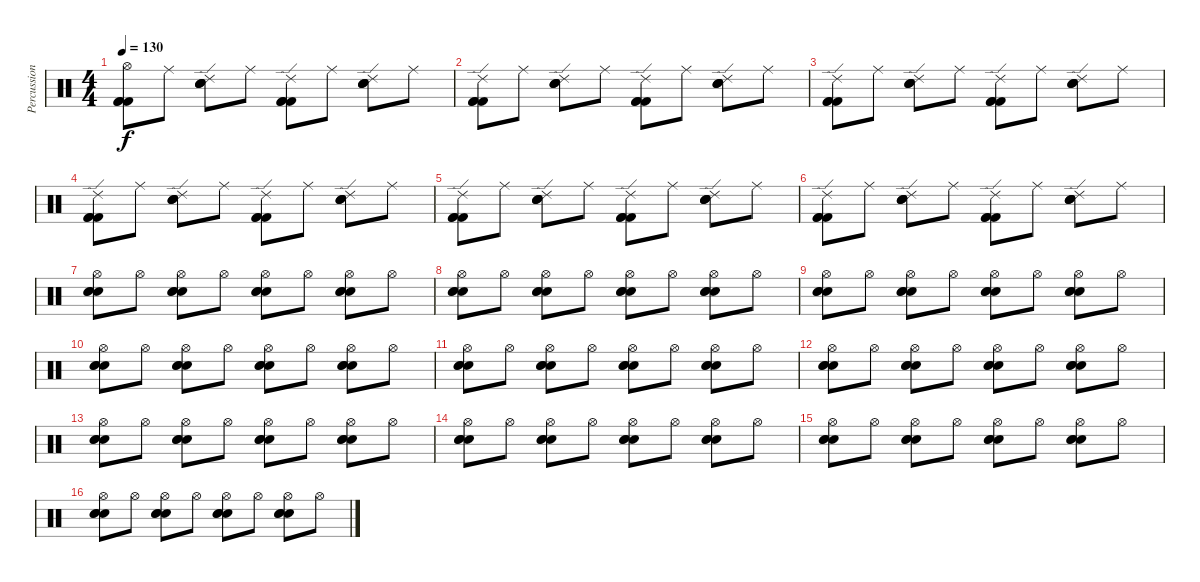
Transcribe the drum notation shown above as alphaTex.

\track ("Percussion" "Percussion") {instrument percussion}
\staff {score}
\articulation defaults
\ts (4 4)
\tempo 130
\clef neutral
\ks c
("Hi-Hat (open)" "Kick (hit) 2" "Kick (hit) 2" "Kick (hit) 2").8{dy f} "Ride (middle)".8 ("Ride (edge) 2" "Electric Snare (hit)" "Electric Snare (hit)" "Electric Snare (hit)").8 "Ride (middle)".8 ("Ride (edge) 2" "Kick (hit) 2" "Kick (hit) 2" "Kick (hit) 2").8 "Ride (middle)".8 ("Ride (edge) 2" "Electric Snare (hit)" "Electric Snare (hit)" "Electric Snare (hit)").8 "Ride (middle)".8 |
("Ride (edge) 2" "Kick (hit) 2" "Kick (hit) 2" "Kick (hit) 2").8 "Ride (middle)".8 ("Ride (edge) 2" "Electric Snare (hit)" "Electric Snare (hit)" "Electric Snare (hit)").8 "Ride (middle)".8 ("Ride (edge) 2" "Kick (hit) 2" "Kick (hit) 2" "Kick (hit) 2").8 "Ride (middle)".8 ("Ride (edge) 2" "Electric Snare (hit)" "Electric Snare (hit)" "Electric Snare (hit)").8 "Ride (middle)".8 |
("Ride (edge) 2" "Kick (hit) 2" "Kick (hit) 2" "Kick (hit) 2").8 "Ride (middle)".8 ("Ride (edge) 2" "Electric Snare (hit)" "Electric Snare (hit)" "Electric Snare (hit)").8 "Ride (middle)".8 ("Ride (edge) 2" "Kick (hit) 2" "Kick (hit) 2" "Kick (hit) 2").8 "Ride (middle)".8 ("Ride (edge) 2" "Electric Snare (hit)" "Electric Snare (hit)" "Electric Snare (hit)").8 "Ride (middle)".8 |
("Ride (edge) 2" "Kick (hit) 2" "Kick (hit) 2" "Kick (hit) 2").8 "Ride (middle)".8 ("Ride (edge) 2" "Electric Snare (hit)" "Electric Snare (hit)" "Electric Snare (hit)").8 "Ride (middle)".8 ("Ride (edge) 2" "Kick (hit) 2" "Kick (hit) 2" "Kick (hit) 2").8 "Ride (middle)".8 ("Ride (edge) 2" "Electric Snare (hit)" "Electric Snare (hit)" "Electric Snare (hit)").8 "Ride (middle)".8 |
("Ride (edge) 2" "Kick (hit) 2" "Kick (hit) 2" "Kick (hit) 2").8 "Ride (middle)".8 ("Ride (edge) 2" "Electric Snare (hit)" "Electric Snare (hit)" "Electric Snare (hit)").8 "Ride (middle)".8 ("Ride (edge) 2" "Kick (hit) 2" "Kick (hit) 2" "Kick (hit) 2").8 "Ride (middle)".8 ("Ride (edge) 2" "Electric Snare (hit)" "Electric Snare (hit)" "Electric Snare (hit)").8 "Ride (middle)".8 |
("Ride (edge) 2" "Kick (hit) 2" "Kick (hit) 2" "Kick (hit) 2").8 "Ride (middle)".8 ("Ride (edge) 2" "Electric Snare (hit)" "Electric Snare (hit)" "Electric Snare (hit)").8 "Ride (middle)".8 ("Ride (edge) 2" "Kick (hit) 2" "Kick (hit) 2" "Kick (hit) 2").8 "Ride (middle)".8 ("Ride (edge) 2" "Electric Snare (hit)" "Electric Snare (hit)" "Electric Snare (hit)").8 "Ride (middle)".8 |
("Hi-Hat (open)" "Electric Snare (hit)" "Electric Snare (hit)" "Electric Snare (hit)").8 "Hi-Hat (open)".8 ("Hi-Hat (open)" "Electric Snare (hit)" "Electric Snare (hit)" "Electric Snare (hit)").8 "Hi-Hat (open)".8 ("Hi-Hat (open)" "Electric Snare (hit)" "Electric Snare (hit)" "Electric Snare (hit)").8 "Hi-Hat (open)".8 ("Hi-Hat (open)" "Electric Snare (hit)" "Electric Snare (hit)" "Electric Snare (hit)").8 "Hi-Hat (open)".8 |
("Hi-Hat (open)" "Electric Snare (hit)" "Electric Snare (hit)" "Electric Snare (hit)").8 "Hi-Hat (open)".8 ("Hi-Hat (open)" "Electric Snare (hit)" "Electric Snare (hit)" "Electric Snare (hit)").8 "Hi-Hat (open)".8 ("Hi-Hat (open)" "Electric Snare (hit)" "Electric Snare (hit)" "Electric Snare (hit)").8 "Hi-Hat (open)".8 ("Hi-Hat (open)" "Electric Snare (hit)" "Electric Snare (hit)" "Electric Snare (hit)").8 "Hi-Hat (open)".8 |
("Hi-Hat (open)" "Electric Snare (hit)" "Electric Snare (hit)" "Electric Snare (hit)").8 "Hi-Hat (open)".8 ("Hi-Hat (open)" "Electric Snare (hit)" "Electric Snare (hit)" "Electric Snare (hit)").8 "Hi-Hat (open)".8 ("Hi-Hat (open)" "Electric Snare (hit)" "Electric Snare (hit)" "Electric Snare (hit)").8 "Hi-Hat (open)".8 ("Hi-Hat (open)" "Electric Snare (hit)" "Electric Snare (hit)" "Electric Snare (hit)").8 "Hi-Hat (open)".8 |
("Hi-Hat (open)" "Electric Snare (hit)" "Electric Snare (hit)" "Electric Snare (hit)").8 "Hi-Hat (open)".8 ("Hi-Hat (open)" "Electric Snare (hit)" "Electric Snare (hit)" "Electric Snare (hit)").8 "Hi-Hat (open)".8 ("Hi-Hat (open)" "Electric Snare (hit)" "Electric Snare (hit)" "Electric Snare (hit)").8 "Hi-Hat (open)".8 ("Hi-Hat (open)" "Electric Snare (hit)" "Electric Snare (hit)" "Electric Snare (hit)").8 "Hi-Hat (open)".8 |
("Hi-Hat (open)" "Electric Snare (hit)" "Electric Snare (hit)" "Electric Snare (hit)").8 "Hi-Hat (open)".8 ("Hi-Hat (open)" "Electric Snare (hit)" "Electric Snare (hit)" "Electric Snare (hit)").8 "Hi-Hat (open)".8 ("Hi-Hat (open)" "Electric Snare (hit)" "Electric Snare (hit)" "Electric Snare (hit)").8 "Hi-Hat (open)".8 ("Hi-Hat (open)" "Electric Snare (hit)" "Electric Snare (hit)" "Electric Snare (hit)").8 "Hi-Hat (open)".8 |
("Hi-Hat (open)" "Electric Snare (hit)" "Electric Snare (hit)" "Electric Snare (hit)").8 "Hi-Hat (open)".8 ("Hi-Hat (open)" "Electric Snare (hit)" "Electric Snare (hit)" "Electric Snare (hit)").8 "Hi-Hat (open)".8 ("Hi-Hat (open)" "Electric Snare (hit)" "Electric Snare (hit)" "Electric Snare (hit)").8 "Hi-Hat (open)".8 ("Hi-Hat (open)" "Electric Snare (hit)" "Electric Snare (hit)" "Electric Snare (hit)").8 "Hi-Hat (open)".8 |
("Hi-Hat (open)" "Electric Snare (hit)" "Electric Snare (hit)" "Electric Snare (hit)").8 "Hi-Hat (open)".8 ("Hi-Hat (open)" "Electric Snare (hit)" "Electric Snare (hit)" "Electric Snare (hit)").8 "Hi-Hat (open)".8 ("Hi-Hat (open)" "Electric Snare (hit)" "Electric Snare (hit)" "Electric Snare (hit)").8 "Hi-Hat (open)".8 ("Hi-Hat (open)" "Electric Snare (hit)" "Electric Snare (hit)" "Electric Snare (hit)").8 "Hi-Hat (open)".8 |
("Hi-Hat (open)" "Electric Snare (hit)" "Electric Snare (hit)" "Electric Snare (hit)").8 "Hi-Hat (open)".8 ("Hi-Hat (open)" "Electric Snare (hit)" "Electric Snare (hit)" "Electric Snare (hit)").8 "Hi-Hat (open)".8 ("Hi-Hat (open)" "Electric Snare (hit)" "Electric Snare (hit)" "Electric Snare (hit)").8 "Hi-Hat (open)".8 ("Hi-Hat (open)" "Electric Snare (hit)" "Electric Snare (hit)" "Electric Snare (hit)").8 "Hi-Hat (open)".8 |
("Hi-Hat (open)" "Electric Snare (hit)" "Electric Snare (hit)" "Electric Snare (hit)").8 "Hi-Hat (open)".8 ("Hi-Hat (open)" "Electric Snare (hit)" "Electric Snare (hit)" "Electric Snare (hit)").8 "Hi-Hat (open)".8 ("Hi-Hat (open)" "Electric Snare (hit)" "Electric Snare (hit)" "Electric Snare (hit)").8 "Hi-Hat (open)".8 ("Hi-Hat (open)" "Electric Snare (hit)" "Electric Snare (hit)" "Electric Snare (hit)").8 "Hi-Hat (open)".8 |
("Hi-Hat (open)" "Electric Snare (hit)" "Electric Snare (hit)" "Electric Snare (hit)").8 "Hi-Hat (open)".8 ("Hi-Hat (open)" "Electric Snare (hit)" "Electric Snare (hit)" "Electric Snare (hit)").8 "Hi-Hat (open)".8 ("Hi-Hat (open)" "Electric Snare (hit)" "Electric Snare (hit)" "Electric Snare (hit)").8 "Hi-Hat (open)".8 ("Hi-Hat (open)" "Electric Snare (hit)" "Electric Snare (hit)" "Electric Snare (hit)").8 "Hi-Hat (open)".8
